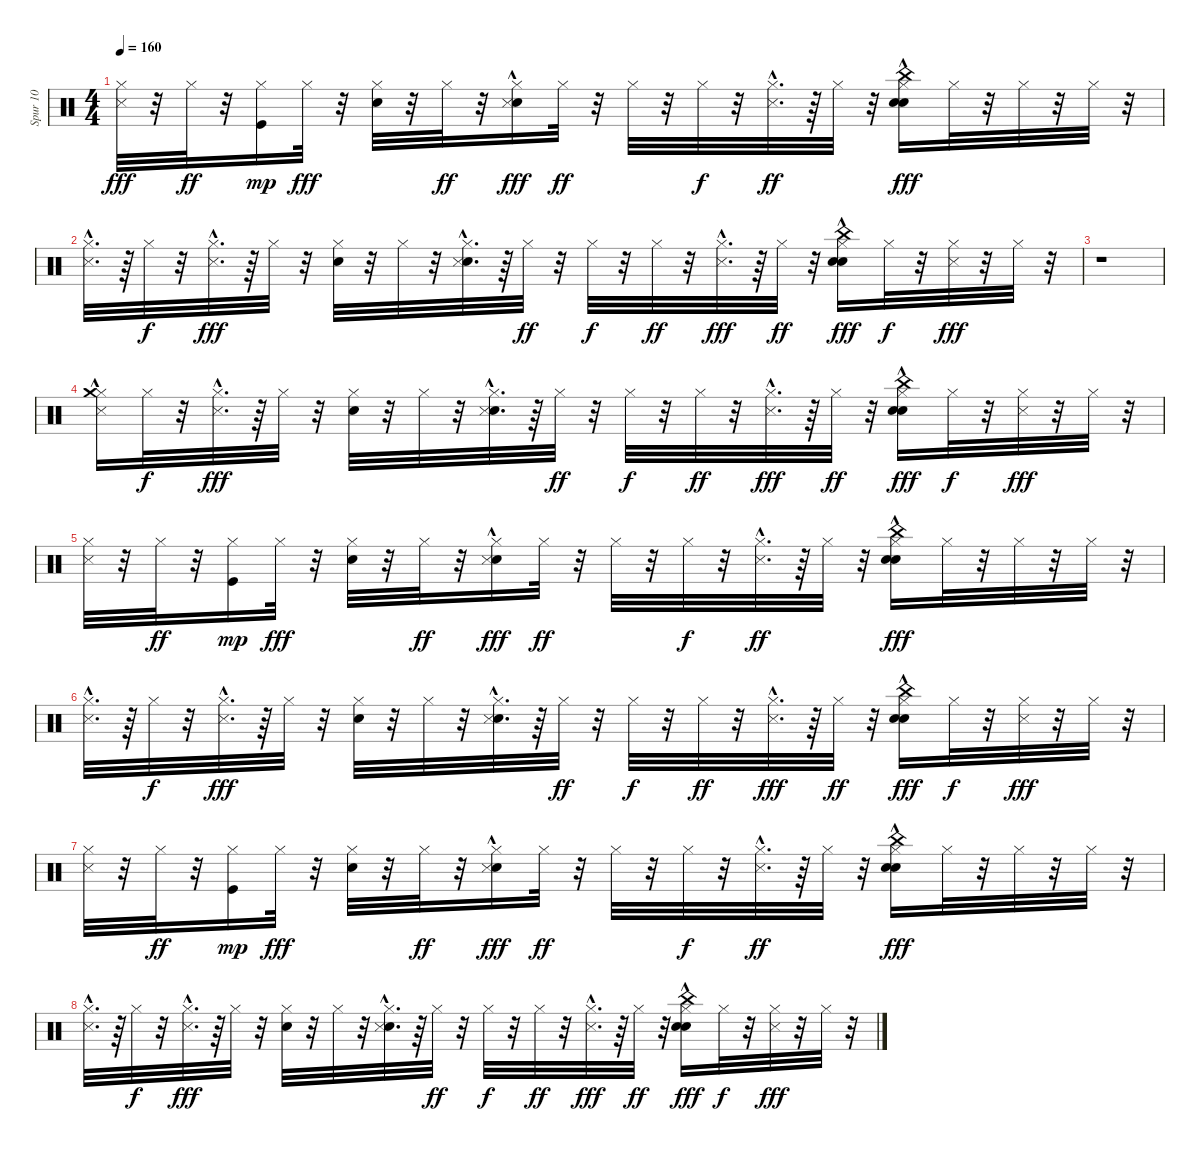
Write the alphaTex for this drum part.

\track ("Spur 10" "Spur 10") {instrument percussion}
\staff {score}
\articulation defaults
\ts (4 4)
\tempo 160
\clef neutral
\ks c
("Hi-Hat (closed)" "Metronome (hit)").32{dy fff} r.32 "Hi-Hat (closed)".32{dy ff} r.32 ("Hi-Hat (closed)" "Kick (hit)").16{dy mp} "Hi-Hat (closed)".32{dy fff} r.32 ("Hi-Hat (closed)" "Snare (hit) 2").32 r.32 "Hi-Hat (closed)".32{dy ff} r.32 ("Hi-Hat (closed)" "Snare (hit) 2" "Metronome (hit)"{hac}).16{dy fff} "Hi-Hat (closed)".32{dy ff} r.32 "Hi-Hat (closed)".32 r.32 "Hi-Hat (closed)".32{dy f} r.32 ("Hi-Hat (closed)" "Metronome (hit)"{hac}).32{d dy ff} r.64 "Hi-Hat (closed)".32 r.32 ("Hi-Hat (closed)" "Snare (hit) 2"{hac} "China (hit)" "Hand Clap (hit)").16{dy fff} "Hi-Hat (closed)".32 r.32 "Hi-Hat (closed)".32 r.32 "Hi-Hat (closed)".32 r.32 |
("Hi-Hat (closed)" "Metronome (hit)"{hac}).32{d} r.64 "Hi-Hat (closed)".32{dy f} r.32 ("Hi-Hat (closed)" "Metronome (hit)"{hac}).32{d dy fff} r.64 "Hi-Hat (closed)".32 r.32 ("Hi-Hat (closed)" "Snare (hit) 2").32 r.32 "Hi-Hat (closed)".32 r.32 ("Hi-Hat (closed)" "Snare (hit) 2"{hac} "Metronome (hit)"{hac}).32{d} r.64 "Hi-Hat (closed)".32{dy ff} r.32 "Hi-Hat (closed)".32{dy f} r.32 "Hi-Hat (closed)".32{dy ff} r.32 ("Hi-Hat (closed)" "Metronome (hit)"{hac}).32{d dy fff} r.64 "Hi-Hat (closed)".32{dy ff} r.32 ("Hi-Hat (closed)" "Snare (hit) 2"{hac} "China (hit)" "Hand Clap (hit)").16{dy fff} "Hi-Hat (closed)".32{dy f} r.32 ("Hi-Hat (closed)" "Metronome (hit)").32{dy fff} r.32 "Hi-Hat (closed)".32 r.32 |
r.1 |
("Hi-Hat (closed)" "Metronome (hit)"{hac} "Crash medium (hit)").16 "Hi-Hat (closed)".32{dy f} r.32 ("Hi-Hat (closed)" "Metronome (hit)"{hac}).32{d dy fff} r.64 "Hi-Hat (closed)".32 r.32 ("Hi-Hat (closed)" "Snare (hit) 2").32 r.32 "Hi-Hat (closed)".32 r.32 ("Hi-Hat (closed)" "Snare (hit) 2"{hac} "Metronome (hit)"{hac}).32{d} r.64 "Hi-Hat (closed)".32{dy ff} r.32 "Hi-Hat (closed)".32{dy f} r.32 "Hi-Hat (closed)".32{dy ff} r.32 ("Hi-Hat (closed)" "Metronome (hit)"{hac}).32{d dy fff} r.64 "Hi-Hat (closed)".32{dy ff} r.32 ("Hi-Hat (closed)" "Snare (hit) 2"{hac} "China (hit)" "Hand Clap (hit)").16{dy fff} "Hi-Hat (closed)".32{dy f} r.32 ("Hi-Hat (closed)" "Metronome (hit)").32{dy fff} r.32 "Hi-Hat (closed)".32 r.32 |
("Hi-Hat (closed)" "Metronome (hit)").32 r.32 "Hi-Hat (closed)".32{dy ff} r.32 ("Hi-Hat (closed)" "Kick (hit)").16{dy mp} "Hi-Hat (closed)".32{dy fff} r.32 ("Hi-Hat (closed)" "Snare (hit) 2").32 r.32 "Hi-Hat (closed)".32{dy ff} r.32 ("Hi-Hat (closed)" "Snare (hit) 2" "Metronome (hit)"{hac}).16{dy fff} "Hi-Hat (closed)".32{dy ff} r.32 "Hi-Hat (closed)".32 r.32 "Hi-Hat (closed)".32{dy f} r.32 ("Hi-Hat (closed)" "Metronome (hit)"{hac}).32{d dy ff} r.64 "Hi-Hat (closed)".32 r.32 ("Hi-Hat (closed)" "Snare (hit) 2"{hac} "China (hit)" "Hand Clap (hit)").16{dy fff} "Hi-Hat (closed)".32 r.32 "Hi-Hat (closed)".32 r.32 "Hi-Hat (closed)".32 r.32 |
("Hi-Hat (closed)" "Metronome (hit)"{hac}).32{d} r.64 "Hi-Hat (closed)".32{dy f} r.32 ("Hi-Hat (closed)" "Metronome (hit)"{hac}).32{d dy fff} r.64 "Hi-Hat (closed)".32 r.32 ("Hi-Hat (closed)" "Snare (hit) 2").32 r.32 "Hi-Hat (closed)".32 r.32 ("Hi-Hat (closed)" "Snare (hit) 2"{hac} "Metronome (hit)"{hac}).32{d} r.64 "Hi-Hat (closed)".32{dy ff} r.32 "Hi-Hat (closed)".32{dy f} r.32 "Hi-Hat (closed)".32{dy ff} r.32 ("Hi-Hat (closed)" "Metronome (hit)"{hac}).32{d dy fff} r.64 "Hi-Hat (closed)".32{dy ff} r.32 ("Hi-Hat (closed)" "Snare (hit) 2"{hac} "China (hit)" "Hand Clap (hit)").16{dy fff} "Hi-Hat (closed)".32{dy f} r.32 ("Hi-Hat (closed)" "Metronome (hit)").32{dy fff} r.32 "Hi-Hat (closed)".32 r.32 |
("Hi-Hat (closed)" "Metronome (hit)").32 r.32 "Hi-Hat (closed)".32{dy ff} r.32 ("Hi-Hat (closed)" "Kick (hit)").16{dy mp} "Hi-Hat (closed)".32{dy fff} r.32 ("Hi-Hat (closed)" "Snare (hit) 2").32 r.32 "Hi-Hat (closed)".32{dy ff} r.32 ("Hi-Hat (closed)" "Snare (hit) 2" "Metronome (hit)"{hac}).16{dy fff} "Hi-Hat (closed)".32{dy ff} r.32 "Hi-Hat (closed)".32 r.32 "Hi-Hat (closed)".32{dy f} r.32 ("Hi-Hat (closed)" "Metronome (hit)"{hac}).32{d dy ff} r.64 "Hi-Hat (closed)".32 r.32 ("Hi-Hat (closed)" "Snare (hit) 2"{hac} "China (hit)" "Hand Clap (hit)").16{dy fff} "Hi-Hat (closed)".32 r.32 "Hi-Hat (closed)".32 r.32 "Hi-Hat (closed)".32 r.32 |
("Hi-Hat (closed)" "Metronome (hit)"{hac}).32{d} r.64 "Hi-Hat (closed)".32{dy f} r.32 ("Hi-Hat (closed)" "Metronome (hit)"{hac}).32{d dy fff} r.64 "Hi-Hat (closed)".32 r.32 ("Hi-Hat (closed)" "Snare (hit) 2").32 r.32 "Hi-Hat (closed)".32 r.32 ("Hi-Hat (closed)" "Snare (hit) 2"{hac} "Metronome (hit)"{hac}).32{d} r.64 "Hi-Hat (closed)".32{dy ff} r.32 "Hi-Hat (closed)".32{dy f} r.32 "Hi-Hat (closed)".32{dy ff} r.32 ("Hi-Hat (closed)" "Metronome (hit)"{hac}).32{d dy fff} r.64 "Hi-Hat (closed)".32{dy ff} r.32 ("Hi-Hat (closed)" "Snare (hit) 2"{hac} "China (hit)" "Hand Clap (hit)").16{dy fff} "Hi-Hat (closed)".32{dy f} r.32 ("Hi-Hat (closed)" "Metronome (hit)").32{dy fff} r.32 "Hi-Hat (closed)".32 r.32
